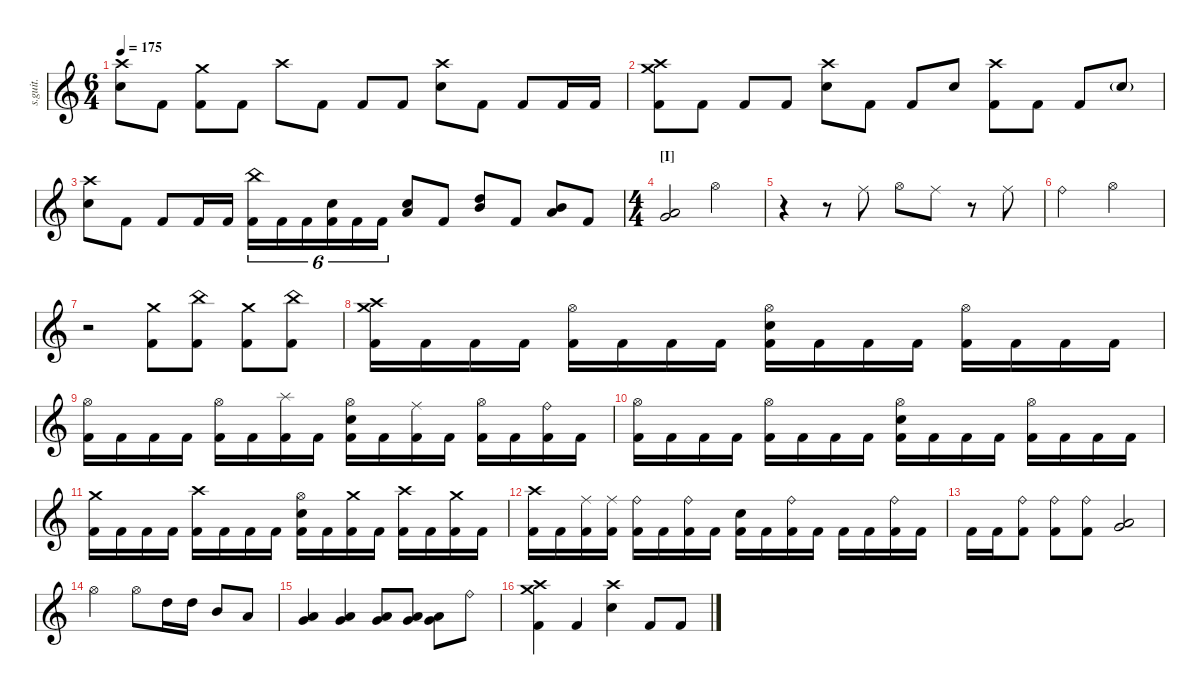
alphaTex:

\defaultSystemsLayout 4
\hideDynamics
\bracketExtendMode nobrackets
\track ("" "s.guit.") {instrument percussion}
\staff {score}
\articulation defaults
\ts (6 4)
\tempo 175
\clef g2
\ks c
("Crash high (hit)" "Snare (hit) 2").8{dy ff} "Kick (hit) 2".8 ("Crash medium (hit)" "Kick (hit) 2").8 "Kick (hit) 2".8 "Crash high (hit)".8 "Kick (hit) 2".8 "Kick (hit) 2".8 "Kick (hit) 2".8 ("Crash high (hit)" "Snare (hit) 2").8 "Kick (hit) 2".8 "Kick (hit) 2".8 "Kick (hit) 2".16 "Kick (hit) 2".16 |
("Crash high (hit)" "Crash medium (hit)" "Kick (hit) 2").8 "Kick (hit) 2".8 "Kick (hit) 2".8 "Kick (hit) 2".8 ("Crash high (hit)" "Snare (hit) 2").8 "Kick (hit) 2".8 "Kick (hit) 2".8 "Snare (hit) 2".8 ("Crash high (hit)" "Kick (hit) 2").8 "Kick (hit) 2".8 "Kick (hit) 2".8 "Snare (hit) 2"{g}.8 |
("Crash high (hit)" "Snare (hit) 2").8 "Kick (hit) 2".8 "Kick (hit) 2".8 "Kick (hit) 2".16 "Kick (hit) 2".16 ("China (hit)" "Kick (hit) 2").16{tu (6 4)} "Kick (hit) 2".16{tu (6 4)} "Kick (hit) 2".16{tu (6 4)} ("Snare (hit) 2" "Kick (hit) 2").16{tu (6 4)} "Kick (hit) 2".16{tu (6 4)} "Kick (hit) 2".16{tu (6 4)} ("Snare (hit) 2" "Low Tom (hit)").8 "Kick (hit) 2".8 ("Mid Tom (hit)" "High Tom (hit)").8 "Kick (hit) 2".8 ("Mid Tom (hit)" "Low Tom (hit)").8 "Kick (hit) 2".8 |
\ts (4 4)
\beaming (8 2 2 2 2)
\section ("I" "")
("Low Tom (hit)" "Very Low Tom (hit)").2 "Hi-Hat (open)".2 |
r.4 r.8 "Ride (middle)".8 "Hi-Hat (open)".8 "Ride (middle)".8 r.8 "Ride (middle)".8 |
"Ride (bell)".2 "Hi-Hat (open)".2 |
r.2 ("Crash medium (hit)" "Kick (hit) 2").8 ("China (hit)" "Kick (hit) 2").8 ("Crash medium (hit)" "Kick (hit) 2").8 ("China (hit)" "Kick (hit) 2").8 |
("Crash medium (hit)" "Crash high (hit)" "Kick (hit) 2").16 "Kick (hit) 2".16 "Kick (hit) 2".16 "Kick (hit) 2".16 ("Hi-Hat (open)" "Kick (hit) 2").16 "Kick (hit) 2".16 "Kick (hit) 2".16 "Kick (hit) 2".16 ("Hi-Hat (open)" "Snare (hit) 2" "Kick (hit) 2").16 "Kick (hit) 2".16 "Kick (hit) 2".16 "Kick (hit) 2".16 ("Hi-Hat (open)" "Kick (hit) 2").16 "Kick (hit) 2".16 "Kick (hit) 2".16 "Kick (hit) 2".16 |
("Hi-Hat (open)" "Kick (hit) 2").16 "Kick (hit) 2".16 "Kick (hit) 2".16 "Kick (hit) 2".16 ("Hi-Hat (open)" "Kick (hit) 2").16 "Kick (hit) 2".16 ("Splash (hit)" "Kick (hit) 2").16 "Kick (hit) 2".16 ("Hi-Hat (open)" "Snare (hit) 2" "Kick (hit) 2").16 "Kick (hit) 2".16 ("Ride (middle)" "Kick (hit) 2").16 "Kick (hit) 2".16 ("Hi-Hat (open)" "Kick (hit) 2").16 "Kick (hit) 2".16 ("Ride (bell)" "Kick (hit) 2").16 "Kick (hit) 2".16 |
("Hi-Hat (open)" "Kick (hit) 2").16 "Kick (hit) 2".16 "Kick (hit) 2".16 "Kick (hit) 2".16 ("Hi-Hat (open)" "Kick (hit) 2").16 "Kick (hit) 2".16 "Kick (hit) 2".16 "Kick (hit) 2".16 ("Hi-Hat (open)" "Snare (hit) 2" "Kick (hit) 2").16 "Kick (hit) 2".16 "Kick (hit) 2".16 "Kick (hit) 2".16 ("Hi-Hat (open)" "Kick (hit) 2").16 "Kick (hit) 2".16 "Kick (hit) 2".16 "Kick (hit) 2".16 |
("Crash medium (hit)" "Kick (hit) 2").16 "Kick (hit) 2".16 "Kick (hit) 2".16 "Kick (hit) 2".16 ("Crash high (hit)" "Kick (hit) 2").16 "Kick (hit) 2".16 "Kick (hit) 2".16 "Kick (hit) 2".16 ("Hi-Hat (open)" "Snare (hit) 2" "Kick (hit) 2").16 "Kick (hit) 2".16 ("Crash medium (hit)" "Kick (hit) 2").16 "Kick (hit) 2".16 ("Crash high (hit)" "Kick (hit) 2").16 "Kick (hit) 2".16 ("Crash medium (hit)" "Kick (hit) 2").16 "Kick (hit) 2".16 |
("Crash high (hit)" "Kick (hit) 2").16 "Kick (hit) 2".16 ("Ride (middle)" "Kick (hit) 2").16 ("Ride (middle)" "Kick (hit) 2").16 ("Ride (bell)" "Kick (hit) 2").16 "Kick (hit) 2".16 ("Ride (bell)" "Kick (hit) 2").16 "Kick (hit) 2".16 ("Snare (hit) 2" "Kick (hit) 2").16 "Kick (hit) 2".16 ("Ride (bell)" "Kick (hit) 2").16 "Kick (hit) 2".16 "Kick (hit) 2".16 "Kick (hit) 2".16 ("Ride (bell)" "Kick (hit) 2").16 "Kick (hit) 2".16 |
"Kick (hit) 2".16 "Kick (hit) 2".16 ("Ride (bell)" "Kick (hit) 2").8 ("Ride (bell)" "Kick (hit) 2").8 ("Ride (bell)" "Kick (hit) 2").8 ("Low Tom (hit)" "Very Low Tom (hit)").2 |
"Hi-Hat (open)".2 "Hi-Hat (open)".8 "High Tom (hit)".16 "High Tom (hit)".16 "Mid Tom (hit)".8 "Low Tom (hit)".8 |
("Low Tom (hit)" "Very Low Tom (hit)").4 ("Low Tom (hit)" "Very Low Tom (hit)").4 ("Low Tom (hit)" "Very Low Tom (hit)").8 ("Low Tom (hit)" "Very Low Tom (hit)").8 ("Low Tom (hit)" "Very Low Tom (hit)").8 "Ride (bell)".8 |
("Crash medium (hit)" "Crash high (hit)" "Kick (hit) 2").4 "Kick (hit) 2".4 ("Crash high (hit)" "Snare (hit) 2").4 "Kick (hit) 2".8 "Kick (hit) 2".8
